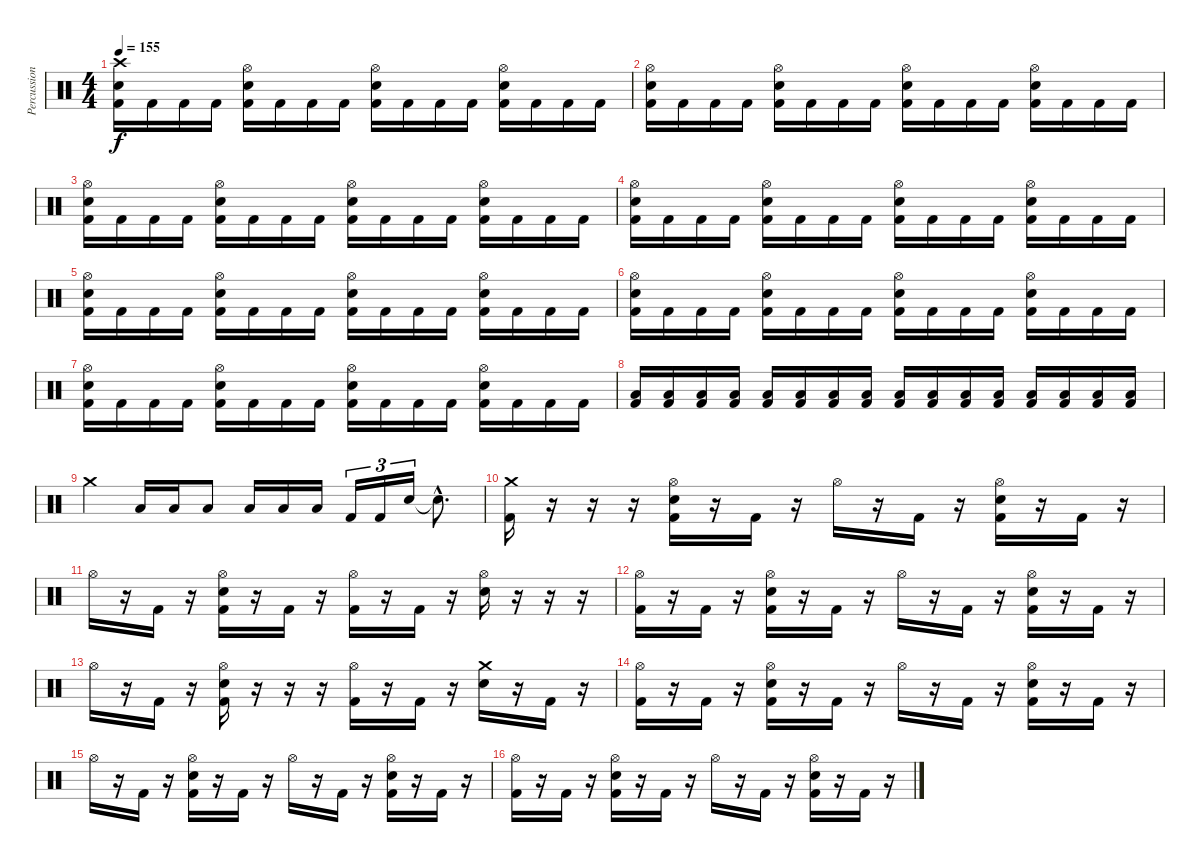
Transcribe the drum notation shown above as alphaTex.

\track ("Percussion" "Percussion") {instrument percussion}
\staff {score}
\articulation defaults
\ts (4 4)
\tempo 155
\clef neutral
\ks c
("Crash high (hit)" "Snare (hit) 2" "Kick (hit) 2").16{dy f} "Kick (hit) 2".16 "Kick (hit) 2".16 "Kick (hit) 2".16 ("Hi-Hat (open)" "Snare (hit) 2" "Kick (hit) 2").16 "Kick (hit) 2".16 "Kick (hit) 2".16 "Kick (hit) 2".16 ("Hi-Hat (open)" "Snare (hit) 2" "Kick (hit) 2").16 "Kick (hit) 2".16 "Kick (hit) 2".16 "Kick (hit) 2".16 ("Hi-Hat (open)" "Snare (hit) 2" "Kick (hit) 2").16 "Kick (hit) 2".16 "Kick (hit) 2".16 "Kick (hit) 2".16 |
("Hi-Hat (open)" "Snare (hit) 2" "Kick (hit) 2").16 "Kick (hit) 2".16 "Kick (hit) 2".16 "Kick (hit) 2".16 ("Hi-Hat (open)" "Snare (hit) 2" "Kick (hit) 2").16 "Kick (hit) 2".16 "Kick (hit) 2".16 "Kick (hit) 2".16 ("Hi-Hat (open)" "Snare (hit) 2" "Kick (hit) 2").16 "Kick (hit) 2".16 "Kick (hit) 2".16 "Kick (hit) 2".16 ("Hi-Hat (open)" "Snare (hit) 2" "Kick (hit) 2").16 "Kick (hit) 2".16 "Kick (hit) 2".16 "Kick (hit) 2".16 |
("Hi-Hat (open)" "Snare (hit) 2" "Kick (hit) 2").16 "Kick (hit) 2".16 "Kick (hit) 2".16 "Kick (hit) 2".16 ("Hi-Hat (open)" "Snare (hit) 2" "Kick (hit) 2").16 "Kick (hit) 2".16 "Kick (hit) 2".16 "Kick (hit) 2".16 ("Hi-Hat (open)" "Snare (hit) 2" "Kick (hit) 2").16 "Kick (hit) 2".16 "Kick (hit) 2".16 "Kick (hit) 2".16 ("Hi-Hat (open)" "Snare (hit) 2" "Kick (hit) 2").16 "Kick (hit) 2".16 "Kick (hit) 2".16 "Kick (hit) 2".16 |
("Hi-Hat (open)" "Snare (hit) 2" "Kick (hit) 2").16 "Kick (hit) 2".16 "Kick (hit) 2".16 "Kick (hit) 2".16 ("Hi-Hat (open)" "Snare (hit) 2" "Kick (hit) 2").16 "Kick (hit) 2".16 "Kick (hit) 2".16 "Kick (hit) 2".16 ("Hi-Hat (open)" "Snare (hit) 2" "Kick (hit) 2").16 "Kick (hit) 2".16 "Kick (hit) 2".16 "Kick (hit) 2".16 ("Hi-Hat (open)" "Snare (hit) 2" "Kick (hit) 2").16 "Kick (hit) 2".16 "Kick (hit) 2".16 "Kick (hit) 2".16 |
("Hi-Hat (open)" "Snare (hit) 2" "Kick (hit) 2").16 "Kick (hit) 2".16 "Kick (hit) 2".16 "Kick (hit) 2".16 ("Hi-Hat (open)" "Snare (hit) 2" "Kick (hit) 2").16 "Kick (hit) 2".16 "Kick (hit) 2".16 "Kick (hit) 2".16 ("Hi-Hat (open)" "Snare (hit) 2" "Kick (hit) 2").16 "Kick (hit) 2".16 "Kick (hit) 2".16 "Kick (hit) 2".16 ("Hi-Hat (open)" "Snare (hit) 2" "Kick (hit) 2").16 "Kick (hit) 2".16 "Kick (hit) 2".16 "Kick (hit) 2".16 |
("Hi-Hat (open)" "Snare (hit) 2" "Kick (hit) 2").16 "Kick (hit) 2".16 "Kick (hit) 2".16 "Kick (hit) 2".16 ("Hi-Hat (open)" "Snare (hit) 2" "Kick (hit) 2").16 "Kick (hit) 2".16 "Kick (hit) 2".16 "Kick (hit) 2".16 ("Hi-Hat (open)" "Snare (hit) 2" "Kick (hit) 2").16 "Kick (hit) 2".16 "Kick (hit) 2".16 "Kick (hit) 2".16 ("Hi-Hat (open)" "Snare (hit) 2" "Kick (hit) 2").16 "Kick (hit) 2".16 "Kick (hit) 2".16 "Kick (hit) 2".16 |
("Hi-Hat (open)" "Snare (hit) 2" "Kick (hit) 2").16 "Kick (hit) 2".16 "Kick (hit) 2".16 "Kick (hit) 2".16 ("Hi-Hat (open)" "Snare (hit) 2" "Kick (hit) 2").16 "Kick (hit) 2".16 "Kick (hit) 2".16 "Kick (hit) 2".16 ("Hi-Hat (open)" "Snare (hit) 2" "Kick (hit) 2").16 "Kick (hit) 2".16 "Kick (hit) 2".16 "Kick (hit) 2".16 ("Hi-Hat (open)" "Snare (hit) 2" "Kick (hit) 2").16 "Kick (hit) 2".16 "Kick (hit) 2".16 "Kick (hit) 2".16 |
("Low Floor Tom (hit)" "Kick (hit) 2").16 ("Low Floor Tom (hit)" "Kick (hit) 2").16 ("Low Floor Tom (hit)" "Kick (hit) 2").16 ("Low Floor Tom (hit)" "Kick (hit) 2").16 ("Low Floor Tom (hit)" "Kick (hit) 2").16 ("Low Floor Tom (hit)" "Kick (hit) 2").16 ("Low Floor Tom (hit)" "Kick (hit) 2").16 ("Low Floor Tom (hit)" "Kick (hit) 2").16 ("Low Floor Tom (hit)" "Kick (hit) 2").16 ("Low Floor Tom (hit)" "Kick (hit) 2").16 ("Low Floor Tom (hit)" "Kick (hit) 2").16 ("Low Floor Tom (hit)" "Kick (hit) 2").16 ("Low Floor Tom (hit)" "Kick (hit) 2").16 ("Low Floor Tom (hit)" "Kick (hit) 2").16 ("Low Floor Tom (hit)" "Kick (hit) 2").16 ("Low Floor Tom (hit)" "Kick (hit) 2").16 |
"Crash medium (hit)".4 "Low Floor Tom (hit)".16 "Low Floor Tom (hit)".16 "Low Floor Tom (hit)".8 "Low Floor Tom (hit)".16 "Low Floor Tom (hit)".16 "Low Floor Tom (hit)".16 "Kick (hit) 2".16{tu (3 2)} "Kick (hit) 2".16{tu (3 2)} "Snare (hit) 2".16{tu (3 2)} "Snare (hit) 2"{hac t}.8{d} |
("Crash medium (hit)" "Kick (hit) 2").16 r.16 r.16 r.16 ("Hi-Hat (open)" "Snare (hit) 2" "Kick (hit) 2").16 r.16 "Kick (hit) 2".16 r.16 "Hi-Hat (open)".16 r.16 "Kick (hit) 2".16 r.16 ("Hi-Hat (open)" "Snare (hit) 2" "Kick (hit) 2").16 r.16 "Kick (hit) 2".16 r.16 |
"Hi-Hat (open)".16 r.16 "Kick (hit) 2".16 r.16 ("Hi-Hat (open)" "Snare (hit) 2" "Kick (hit) 2").16 r.16 "Kick (hit) 2".16 r.16 ("Hi-Hat (open)" "Kick (hit) 2").16 r.16 "Kick (hit) 2".16 r.16 ("Hi-Hat (open)" "Snare (hit) 2").16 r.16 r.16 r.16 |
("Hi-Hat (open)" "Kick (hit) 2").16 r.16 "Kick (hit) 2".16 r.16 ("Hi-Hat (open)" "Snare (hit) 2" "Kick (hit) 2").16 r.16 "Kick (hit) 2".16 r.16 "Hi-Hat (open)".16 r.16 "Kick (hit) 2".16 r.16 ("Hi-Hat (open)" "Snare (hit) 2" "Kick (hit) 2").16 r.16 "Kick (hit) 2".16 r.16 |
"Hi-Hat (open)".16 r.16 "Kick (hit) 2".16 r.16 ("Hi-Hat (open)" "Snare (hit) 2" "Kick (hit) 2").16 r.16 r.16 r.16 ("Hi-Hat (open)" "Kick (hit) 2").16 r.16 "Kick (hit) 2".16 r.16 ("Crash medium (hit)" "Snare (hit) 2").16 r.16 "Kick (hit) 2".16 r.16 |
("Hi-Hat (open)" "Kick (hit) 2").16 r.16 "Kick (hit) 2".16 r.16 ("Hi-Hat (open)" "Snare (hit) 2" "Kick (hit) 2").16 r.16 "Kick (hit) 2".16 r.16 "Hi-Hat (open)".16 r.16 "Kick (hit) 2".16 r.16 ("Hi-Hat (open)" "Snare (hit) 2" "Kick (hit) 2").16 r.16 "Kick (hit) 2".16 r.16 |
"Hi-Hat (open)".16 r.16 "Kick (hit) 2".16 r.16 ("Hi-Hat (open)" "Snare (hit) 2" "Kick (hit) 2").16 r.16 "Kick (hit) 2".16 r.16 "Hi-Hat (open)".16 r.16 "Kick (hit) 2".16 r.16 ("Hi-Hat (open)" "Snare (hit) 2" "Kick (hit) 2").16 r.16 "Kick (hit) 2".16 r.16 |
("Hi-Hat (open)" "Kick (hit) 2").16 r.16 "Kick (hit) 2".16 r.16 ("Hi-Hat (open)" "Snare (hit) 2" "Kick (hit) 2").16 r.16 "Kick (hit) 2".16 r.16 "Hi-Hat (open)".16 r.16 "Kick (hit) 2".16 r.16 ("Hi-Hat (open)" "Snare (hit) 2" "Kick (hit) 2").16 r.16 "Kick (hit) 2".16 r.16
